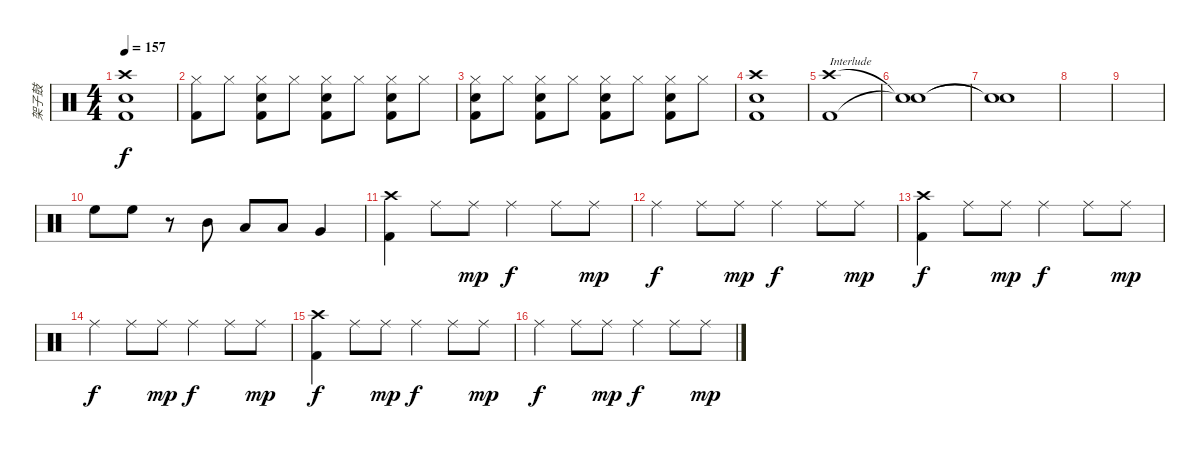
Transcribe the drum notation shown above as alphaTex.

\track ("架子鼓" "架子鼓") {instrument percussion}
\staff {score}
\articulation defaults
\ts (4 4)
\tempo 157
\clef neutral
\ks c
("Crash high (hit)" "Snare (hit) 2" "Kick (hit) 2").1{dy f} |
("Hi-Hat (closed)" "Kick (hit) 2").8 "Hi-Hat (closed)".8 ("Hi-Hat (closed)" "Snare (hit) 2" "Kick (hit) 2").8 "Hi-Hat (closed)".8 ("Hi-Hat (closed)" "Snare (hit) 2" "Kick (hit) 2").8 "Hi-Hat (closed)".8 ("Hi-Hat (closed)" "Snare (hit) 2" "Kick (hit) 2").8 "Hi-Hat (closed)".8 |
("Hi-Hat (closed)" "Snare (hit) 2" "Kick (hit) 2").8 "Hi-Hat (closed)".8 ("Hi-Hat (closed)" "Snare (hit) 2" "Kick (hit) 2").8 "Hi-Hat (closed)".8 ("Hi-Hat (closed)" "Snare (hit) 2" "Kick (hit) 2").8 "Hi-Hat (closed)".8 ("Hi-Hat (closed)" "Snare (hit) 2" "Kick (hit) 2").8 "Hi-Hat (closed)".8 |
("Crash high (hit)" "Snare (hit) 2" "Kick (hit) 2").1 |
("Crash high (hit)" "Kick (hit) 2").1{txt "Interlude"} |
("Snare (hit)"{t} "Snare (hit)"{t}).1 |
("Snare (hit)"{t} "Snare (hit)"{t}).1 |
|
|
"High Floor Tom (hit)".8 "High Floor Tom (hit)".8 r.8 "Mid Tom (hit)".8 "Low Tom (hit)".8 "Low Tom (hit)".8 "Very Low Tom (hit)".4 |
("Crash high (hit)" "Kick (hit) 2").4 "Ride (middle)".8 "Ride (middle)".8{dy mp} "Ride (middle)".4{dy f} "Ride (middle)".8 "Ride (middle)".8{dy mp} |
"Ride (middle)".4{dy f} "Ride (middle)".8 "Ride (middle)".8{dy mp} "Ride (middle)".4{dy f} "Ride (middle)".8 "Ride (middle)".8{dy mp} |
("Crash high (hit)" "Kick (hit) 2").4{dy f} "Ride (middle)".8 "Ride (middle)".8{dy mp} "Ride (middle)".4{dy f} "Ride (middle)".8 "Ride (middle)".8{dy mp} |
"Ride (middle)".4{dy f} "Ride (middle)".8 "Ride (middle)".8{dy mp} "Ride (middle)".4{dy f} "Ride (middle)".8 "Ride (middle)".8{dy mp} |
("Crash high (hit)" "Kick (hit) 2").4{dy f} "Ride (middle)".8 "Ride (middle)".8{dy mp} "Ride (middle)".4{dy f} "Ride (middle)".8 "Ride (middle)".8{dy mp} |
"Ride (middle)".4{dy f} "Ride (middle)".8 "Ride (middle)".8{dy mp} "Ride (middle)".4{dy f} "Ride (middle)".8 "Ride (middle)".8{dy mp}
